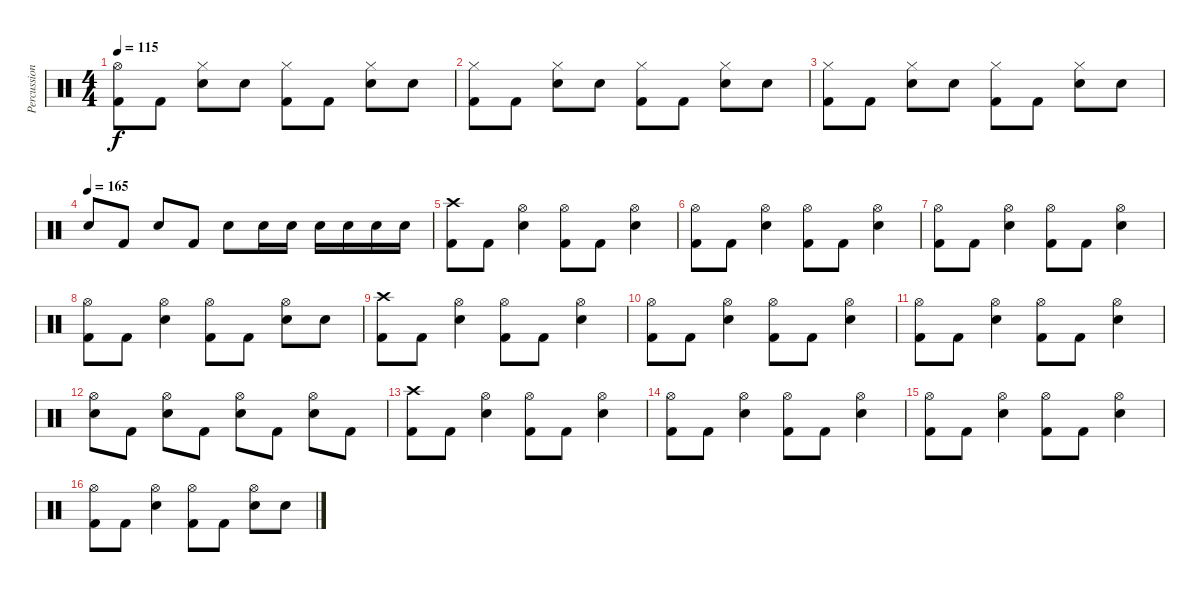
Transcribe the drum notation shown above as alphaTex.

\track ("Percussion" "Percussion") {instrument percussion}
\staff {score}
\articulation defaults
\ts (4 4)
\tempo 115
\clef neutral
\ks c
("Hi-Hat (open)" "Kick (hit) 2").8{dy f} "Kick (hit) 2".8 ("Hi-Hat (closed)" "Snare (hit) 2").8 "Snare (hit) 2".8 ("Hi-Hat (closed)" "Kick (hit) 2").8 "Kick (hit) 2".8 ("Hi-Hat (closed)" "Snare (hit) 2").8 "Snare (hit) 2".8 |
("Hi-Hat (closed)" "Kick (hit) 2").8 "Kick (hit) 2".8 ("Hi-Hat (closed)" "Snare (hit) 2").8 "Snare (hit) 2".8 ("Hi-Hat (closed)" "Kick (hit) 2").8 "Kick (hit) 2".8 ("Hi-Hat (closed)" "Snare (hit) 2").8 "Snare (hit) 2".8 |
("Hi-Hat (closed)" "Kick (hit) 2").8 "Kick (hit) 2".8 ("Hi-Hat (closed)" "Snare (hit) 2").8 "Snare (hit) 2".8 ("Hi-Hat (closed)" "Kick (hit) 2").8 "Kick (hit) 2".8 ("Hi-Hat (closed)" "Snare (hit) 2").8 "Snare (hit) 2".8 |
\tempo (165)
"Snare (hit) 2".8 "Kick (hit) 2".8 "Snare (hit) 2".8 "Kick (hit) 2".8 "Snare (hit) 2".8 "Snare (hit) 2".16 "Snare (hit) 2".16 "Snare (hit) 2".16 "Snare (hit) 2".16 "Snare (hit) 2".16 "Snare (hit) 2".16 |
("Crash high (hit)" "Kick (hit) 2").8 "Kick (hit) 2".8 ("Hi-Hat (open)" "Snare (hit) 2").4 ("Hi-Hat (open)" "Kick (hit) 2").8 "Kick (hit) 2".8 ("Hi-Hat (open)" "Snare (hit) 2").4 |
("Hi-Hat (open)" "Kick (hit) 2").8 "Kick (hit) 2".8 ("Hi-Hat (open)" "Snare (hit) 2").4 ("Hi-Hat (open)" "Kick (hit) 2").8 "Kick (hit) 2".8 ("Hi-Hat (open)" "Snare (hit) 2").4 |
("Hi-Hat (open)" "Kick (hit) 2").8 "Kick (hit) 2".8 ("Hi-Hat (open)" "Snare (hit) 2").4 ("Hi-Hat (open)" "Kick (hit) 2").8 "Kick (hit) 2".8 ("Hi-Hat (open)" "Snare (hit) 2").4 |
("Hi-Hat (open)" "Kick (hit) 2").8 "Kick (hit) 2".8 ("Hi-Hat (open)" "Snare (hit) 2").4 ("Hi-Hat (open)" "Kick (hit) 2").8 "Kick (hit) 2".8 ("Hi-Hat (open)" "Snare (hit) 2").8 "Snare (hit) 2".8 |
("Crash high (hit)" "Kick (hit) 2").8 "Kick (hit) 2".8 ("Hi-Hat (open)" "Snare (hit) 2").4 ("Hi-Hat (open)" "Kick (hit) 2").8 "Kick (hit) 2".8 ("Hi-Hat (open)" "Snare (hit) 2").4 |
("Hi-Hat (open)" "Kick (hit) 2").8 "Kick (hit) 2".8 ("Hi-Hat (open)" "Snare (hit) 2").4 ("Hi-Hat (open)" "Kick (hit) 2").8 "Kick (hit) 2".8 ("Hi-Hat (open)" "Snare (hit) 2").4 |
("Hi-Hat (open)" "Kick (hit) 2").8 "Kick (hit) 2".8 ("Hi-Hat (open)" "Snare (hit) 2").4 ("Hi-Hat (open)" "Kick (hit) 2").8 "Kick (hit) 2".8 ("Hi-Hat (open)" "Snare (hit) 2").4 |
("Hi-Hat (open)" "Snare (hit) 2").8 "Kick (hit) 2".8 ("Hi-Hat (open)" "Snare (hit) 2").8 "Kick (hit) 2".8 ("Hi-Hat (open)" "Snare (hit) 2").8 "Kick (hit) 2".8 ("Hi-Hat (open)" "Snare (hit) 2").8 "Kick (hit) 2".8 |
("Crash high (hit)" "Kick (hit) 2").8 "Kick (hit) 2".8 ("Hi-Hat (open)" "Snare (hit) 2").4 ("Hi-Hat (open)" "Kick (hit) 2").8 "Kick (hit) 2".8 ("Hi-Hat (open)" "Snare (hit) 2").4 |
("Hi-Hat (open)" "Kick (hit) 2").8 "Kick (hit) 2".8 ("Hi-Hat (open)" "Snare (hit) 2").4 ("Hi-Hat (open)" "Kick (hit) 2").8 "Kick (hit) 2".8 ("Hi-Hat (open)" "Snare (hit) 2").4 |
("Hi-Hat (open)" "Kick (hit) 2").8 "Kick (hit) 2".8 ("Hi-Hat (open)" "Snare (hit) 2").4 ("Hi-Hat (open)" "Kick (hit) 2").8 "Kick (hit) 2".8 ("Hi-Hat (open)" "Snare (hit) 2").4 |
("Hi-Hat (open)" "Kick (hit) 2").8 "Kick (hit) 2".8 ("Hi-Hat (open)" "Snare (hit) 2").4 ("Hi-Hat (open)" "Kick (hit) 2").8 "Kick (hit) 2".8 ("Hi-Hat (open)" "Snare (hit) 2").8 "Snare (hit) 2".8
